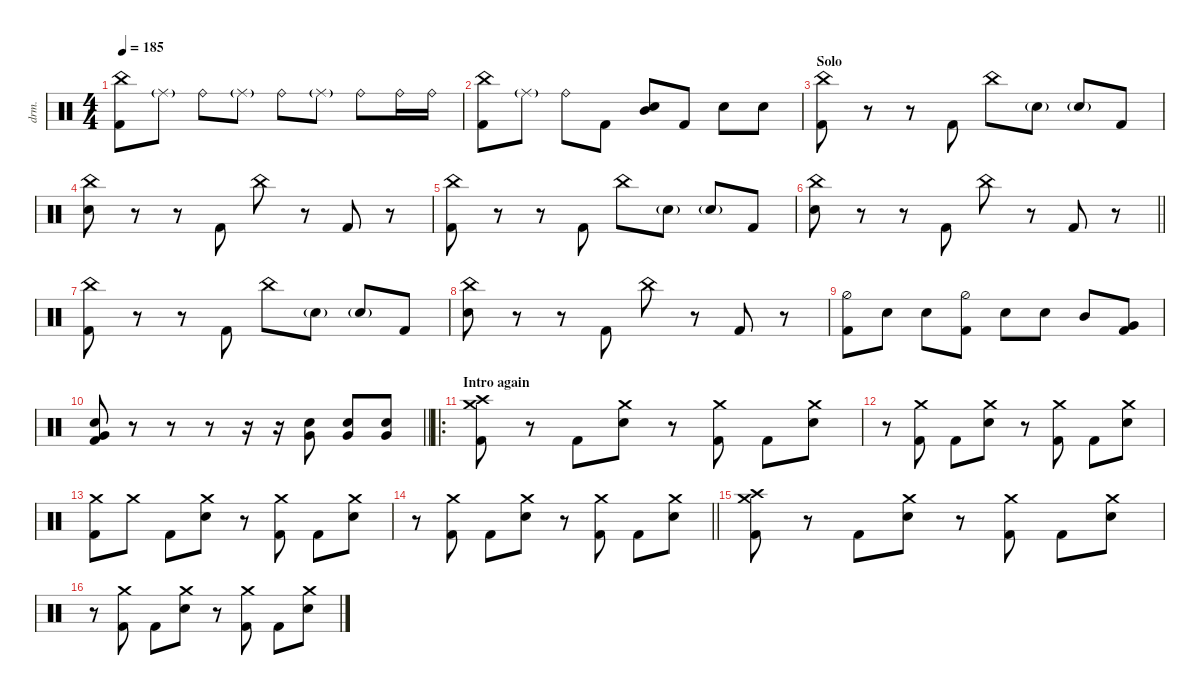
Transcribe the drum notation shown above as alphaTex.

\defaultSystemsLayout 4
\hideDynamics
\bracketExtendMode nobrackets
\track ("Drums - Šimon" "drm.") {instrument percussion}
\staff {score}
\articulation defaults
\ts (4 4)
\tempo 185
\clef neutral
\ks c
("Kick (hit) 2" "China (hit)").8{dy ff beam Down} "Ride (middle)"{g}.8{beam Down} "Ride (bell)".8{beam Down} "Ride (middle)"{g}.8{beam Down} "Ride (bell)".8{beam Down} "Ride (middle)"{g}.8{beam Down} "Ride (bell)".8{beam Down} "Ride (bell)".16{beam Down} "Ride (bell)".16{beam Down} |
("Kick (hit) 2" "China (hit)").8{beam Down} "Ride (middle)"{g}.8{beam Down} "Ride (bell)".8{beam Down} "Kick (hit) 2".8{beam Down} ("Snare (hit) 2" "Mid Tom (hit)").8{beam Up} "Kick (hit) 2".8{beam Up} "Snare (hit) 2".8{beam Down} "Snare (hit) 2".8{beam Down} |
\section ("" "Solo")
("Kick (hit) 2" "China (hit)").8{beam Down} r.8{beam Down} r.8{beam Down} "Kick (hit) 2".8{beam Up} "China (hit)".8{beam Down} "Snare (hit) 2"{g}.8{beam Down} "Snare (hit) 2"{g}.8{beam Up} "Kick (hit) 2".8{beam Up} |
("China (hit)" "Snare (hit) 2").8{beam Down} r.8{beam Down} r.8{beam Down} "Kick (hit) 2".8{beam Up} "China (hit)".8{beam Down} r.8{beam Down} "Kick (hit) 2".8{beam Up} r.8{beam Down} |
("Kick (hit) 2" "China (hit)").8{beam Down} r.8{beam Down} r.8{beam Down} "Kick (hit) 2".8{beam Up} "China (hit)".8{beam Down} "Snare (hit) 2"{g}.8{beam Down} "Snare (hit) 2"{g}.8{beam Up} "Kick (hit) 2".8{beam Up} |
\barLineRight lightlight
("China (hit)" "Snare (hit) 2").8{beam Down} r.8{beam Down} r.8{beam Down} "Kick (hit) 2".8{beam Up} "China (hit)".8{beam Down} r.8{beam Down} "Kick (hit) 2".8{beam Up} r.8{beam Down} |
("Kick (hit) 2" "China (hit)").8{beam Down} r.8{beam Down} r.8{beam Down} "Kick (hit) 2".8{beam Up} "China (hit)".8{beam Down} "Snare (hit) 2"{g}.8{beam Down} "Snare (hit) 2"{g}.8{beam Up} "Kick (hit) 2".8{beam Up} |
("China (hit)" "Snare (hit) 2").8{beam Down} r.8{beam Down} r.8{beam Down} "Kick (hit) 2".8{beam Up} "China (hit)".8{beam Down} r.8{beam Down} "Kick (hit) 2".8{beam Up} r.8{beam Down} |
("Kick (hit) 2" "Hi-Hat (half)").8{beam Down} "Snare (hit) 2".8{beam Down} "Snare (hit) 2".8{beam Down} ("Kick (hit) 2" "Hi-Hat (half)").8{beam Down} "Snare (hit) 2".8{beam Down} "Snare (hit) 2".8{beam Down} "Mid Tom (hit)".8{beam Up} ("Kick (hit) 2" "Very Low Tom (hit)").8{beam Up} |
\barLineRight lightlight
("Snare (hit) 2" "Kick (hit) 2" "Very Low Tom (hit)").8{beam Up} r.8{beam Down} r.8{beam Down} r.8{beam Down} r.16{beam Down} r.16{beam Down} ("Snare (hit) 2" "Very Low Tom (hit)").8{beam Up} ("Snare (hit) 2" "Very Low Tom (hit)").8{beam Up} ("Snare (hit) 2" "Very Low Tom (hit)").8{beam Up} |
\ro
\section ("" "Intro again")
("Crash medium (hit)" "Kick (hit) 2" "Crash high (hit)").8{beam Down} r.8{beam Down} "Kick (hit) 2".8{beam Down} ("Snare (hit) 2" "Crash medium (hit)").8{beam Down} r.8{beam Down} ("Kick (hit) 2" "Crash medium (hit)").8{beam Down} "Kick (hit) 2".8{beam Down} ("Snare (hit) 2" "Crash medium (hit)").8{beam Down} |
r.8{beam Down} ("Kick (hit) 2" "Crash medium (hit)").8{beam Down} "Kick (hit) 2".8{beam Down} ("Snare (hit) 2" "Crash medium (hit)").8{beam Down} r.8{beam Down} ("Kick (hit) 2" "Crash medium (hit)").8{beam Down} "Kick (hit) 2".8{beam Down} ("Snare (hit) 2" "Crash medium (hit)").8{beam Down} |
("Kick (hit) 2" "Crash medium (hit)").8{beam Down} "Crash medium (hit)".8{beam Down} "Kick (hit) 2".8{beam Down} ("Snare (hit) 2" "Crash medium (hit)").8{beam Down} r.8{beam Down} ("Kick (hit) 2" "Crash medium (hit)").8{beam Down} "Kick (hit) 2".8{beam Down} ("Snare (hit) 2" "Crash medium (hit)").8{beam Down} |
\barLineRight lightlight
r.8{beam Down} ("Kick (hit) 2" "Crash medium (hit)").8{beam Down} "Kick (hit) 2".8{beam Down} ("Snare (hit) 2" "Crash medium (hit)").8{beam Down} r.8{beam Down} ("Kick (hit) 2" "Crash medium (hit)").8{beam Down} "Kick (hit) 2".8{beam Down} ("Snare (hit) 2" "Crash medium (hit)").8{beam Down} |
("Crash medium (hit)" "Kick (hit) 2" "Crash high (hit)").8{beam Down} r.8{beam Down} "Kick (hit) 2".8{beam Down} ("Snare (hit) 2" "Crash medium (hit)").8{beam Down} r.8{beam Down} ("Kick (hit) 2" "Crash medium (hit)").8{beam Down} "Kick (hit) 2".8{beam Down} ("Snare (hit) 2" "Crash medium (hit)").8{beam Down} |
r.8{beam Down} ("Kick (hit) 2" "Crash medium (hit)").8{beam Down} "Kick (hit) 2".8{beam Down} ("Snare (hit) 2" "Crash medium (hit)").8{beam Down} r.8{beam Down} ("Kick (hit) 2" "Crash medium (hit)").8{beam Down} "Kick (hit) 2".8{beam Down} ("Snare (hit) 2" "Crash medium (hit)").8{beam Down}
